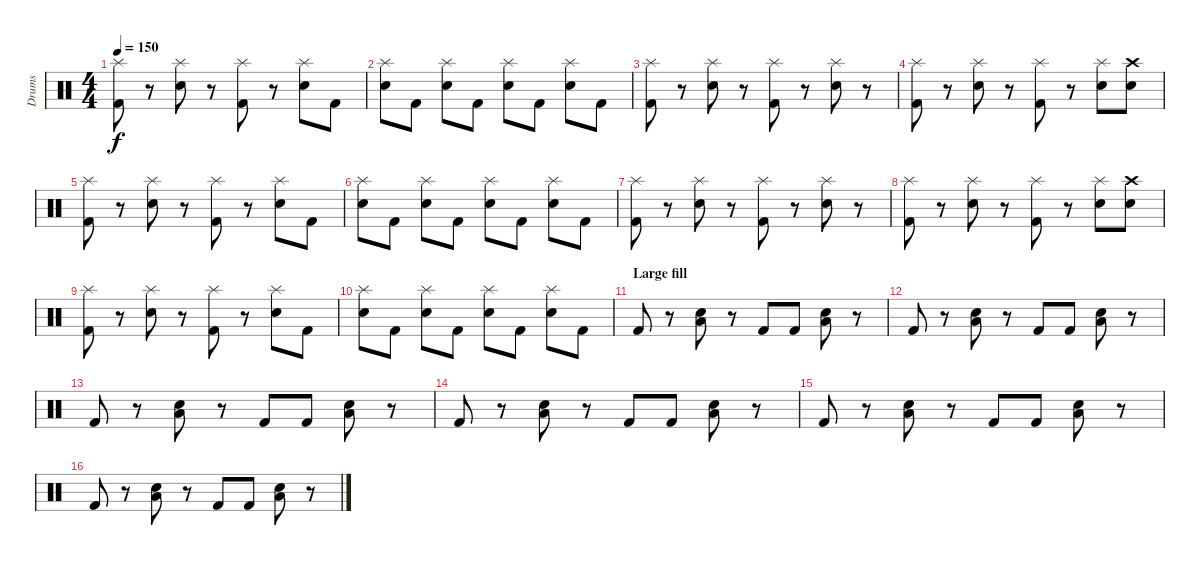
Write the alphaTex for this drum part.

\track ("Drums" "Drums") {instrument percussion}
\staff {score}
\articulation defaults
\ts (4 4)
\tempo 150
\clef neutral
\ks c
("Splash (hit)" "Kick (hit) 2").8{dy f} r.8 ("Splash (hit)" "Electric Snare (hit)").8 r.8 ("Splash (hit)" "Kick (hit) 2").8 r.8 ("Splash (hit)" "Electric Snare (hit)").8 "Kick (hit) 2".8 |
("Splash (hit)" "Electric Snare (hit)").8 "Kick (hit) 2".8 ("Splash (hit)" "Electric Snare (hit)").8 "Kick (hit) 2".8 ("Splash (hit)" "Electric Snare (hit)").8 "Kick (hit) 2".8 ("Splash (hit)" "Electric Snare (hit)").8 "Kick (hit) 2".8 |
("Splash (hit)" "Kick (hit) 2").8 r.8 ("Splash (hit)" "Electric Snare (hit)").8 r.8 ("Splash (hit)" "Kick (hit) 2").8 r.8 ("Splash (hit)" "Electric Snare (hit)").8 r.8 |
("Splash (hit)" "Kick (hit) 2").8 r.8 ("Splash (hit)" "Electric Snare (hit)").8 r.8 ("Splash (hit)" "Kick (hit) 2").8 r.8 ("Splash (hit)" "Electric Snare (hit)").8 ("Crash high (hit)" "Electric Snare (hit)").8 |
("Splash (hit)" "Kick (hit) 2").8 r.8 ("Splash (hit)" "Electric Snare (hit)").8 r.8 ("Splash (hit)" "Kick (hit) 2").8 r.8 ("Splash (hit)" "Electric Snare (hit)").8 "Kick (hit) 2".8 |
("Splash (hit)" "Electric Snare (hit)").8 "Kick (hit) 2".8 ("Splash (hit)" "Electric Snare (hit)").8 "Kick (hit) 2".8 ("Splash (hit)" "Electric Snare (hit)").8 "Kick (hit) 2".8 ("Splash (hit)" "Electric Snare (hit)").8 "Kick (hit) 2".8 |
("Splash (hit)" "Kick (hit) 2").8 r.8 ("Splash (hit)" "Electric Snare (hit)").8 r.8 ("Splash (hit)" "Kick (hit) 2").8 r.8 ("Splash (hit)" "Electric Snare (hit)").8 r.8 |
("Splash (hit)" "Kick (hit) 2").8 r.8 ("Splash (hit)" "Electric Snare (hit)").8 r.8 ("Splash (hit)" "Kick (hit) 2").8 r.8 ("Splash (hit)" "Electric Snare (hit)").8 ("Crash high (hit)" "Electric Snare (hit)").8 |
("Splash (hit)" "Kick (hit) 2").8 r.8 ("Splash (hit)" "Electric Snare (hit)").8 r.8 ("Splash (hit)" "Kick (hit) 2").8 r.8 ("Splash (hit)" "Electric Snare (hit)").8 "Kick (hit) 2".8 |
("Splash (hit)" "Electric Snare (hit)").8 "Kick (hit) 2".8 ("Splash (hit)" "Electric Snare (hit)").8 "Kick (hit) 2".8 ("Splash (hit)" "Electric Snare (hit)").8 "Kick (hit) 2".8 ("Splash (hit)" "Electric Snare (hit)").8 "Kick (hit) 2".8 |
\section ("" "Large fill")
"Kick (hit) 2".8 r.8 ("Low Floor Tom (hit)" "Electric Snare (hit)").8 r.8 "Kick (hit) 2".8 "Kick (hit) 2".8 ("Low Floor Tom (hit)" "Electric Snare (hit)").8 r.8 |
"Kick (hit) 2".8 r.8 ("Low Floor Tom (hit)" "Electric Snare (hit)").8 r.8 "Kick (hit) 2".8 "Kick (hit) 2".8 ("Low Floor Tom (hit)" "Electric Snare (hit)").8 r.8 |
"Kick (hit) 2".8 r.8 ("Low Floor Tom (hit)" "Electric Snare (hit)").8 r.8 "Kick (hit) 2".8 "Kick (hit) 2".8 ("Low Floor Tom (hit)" "Electric Snare (hit)").8 r.8 |
"Kick (hit) 2".8 r.8 ("Low Floor Tom (hit)" "Electric Snare (hit)").8 r.8 "Kick (hit) 2".8 "Kick (hit) 2".8 ("Low Floor Tom (hit)" "Electric Snare (hit)").8 r.8 |
"Kick (hit) 2".8 r.8 ("Low Floor Tom (hit)" "Electric Snare (hit)").8 r.8 "Kick (hit) 2".8 "Kick (hit) 2".8 ("Low Floor Tom (hit)" "Electric Snare (hit)").8 r.8 |
"Kick (hit) 2".8 r.8 ("Low Floor Tom (hit)" "Electric Snare (hit)").8 r.8 "Kick (hit) 2".8 "Kick (hit) 2".8 ("Low Floor Tom (hit)" "Electric Snare (hit)").8 r.8
